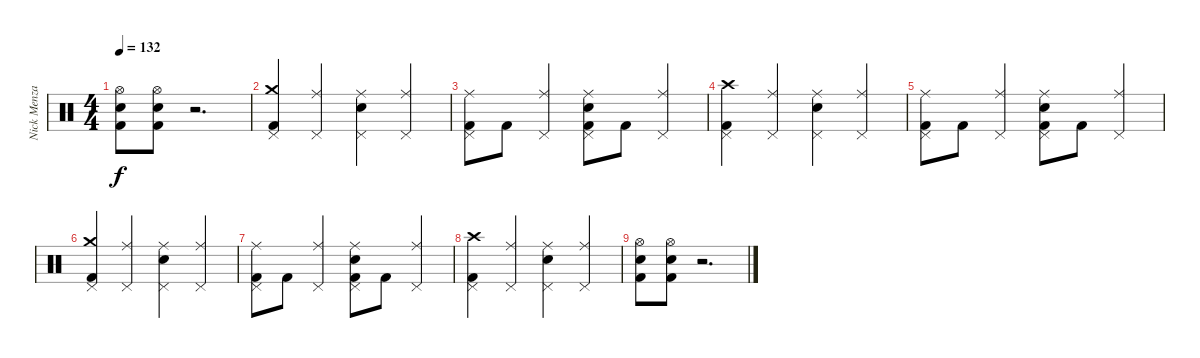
\track ("Nick Menza" "Nick Menza") {instrument percussion}
\staff {score}
\articulation defaults
\ts (4 4)
\tempo 132
\clef neutral
\ks c
("Hi-Hat (open)" "Snare (hit) 2" "Kick (hit) 2").8{dy f} ("Hi-Hat (open)" "Snare (hit) 2" "Kick (hit) 2").8 r.2{d volume 0} |
("Crash medium (hit)" "Pedal Hi-Hat (hit)" "Kick (hit) 2").4{volume 16} ("Ride (middle)" "Pedal Hi-Hat (hit)").4 ("Ride (middle)" "Pedal Hi-Hat (hit)" "Snare (hit) 2").4 ("Ride (middle)" "Pedal Hi-Hat (hit)").4 |
("Ride (middle)" "Pedal Hi-Hat (hit)" "Kick (hit) 2").8 "Kick (hit) 2".8 ("Ride (middle)" "Pedal Hi-Hat (hit)").4 ("Ride (middle)" "Pedal Hi-Hat (hit)" "Snare (hit) 2" "Kick (hit) 2").8 "Kick (hit) 2".8 ("Ride (middle)" "Pedal Hi-Hat (hit)").4 |
("Crash high (hit)" "Pedal Hi-Hat (hit)" "Kick (hit) 2").4 ("Ride (middle)" "Pedal Hi-Hat (hit)").4 ("Ride (middle)" "Pedal Hi-Hat (hit)" "Snare (hit) 2").4 ("Ride (middle)" "Pedal Hi-Hat (hit)").4 |
("Ride (middle)" "Pedal Hi-Hat (hit)" "Kick (hit) 2").8 "Kick (hit) 2".8 ("Ride (middle)" "Pedal Hi-Hat (hit)").4 ("Ride (middle)" "Pedal Hi-Hat (hit)" "Snare (hit) 2" "Kick (hit) 2").8 "Kick (hit) 2".8 ("Ride (middle)" "Pedal Hi-Hat (hit)").4 |
("Crash medium (hit)" "Pedal Hi-Hat (hit)" "Kick (hit) 2").4 ("Ride (middle)" "Pedal Hi-Hat (hit)").4 ("Ride (middle)" "Pedal Hi-Hat (hit)" "Snare (hit) 2").4 ("Ride (middle)" "Pedal Hi-Hat (hit)").4 |
("Ride (middle)" "Pedal Hi-Hat (hit)" "Kick (hit) 2").8 "Kick (hit) 2".8 ("Ride (middle)" "Pedal Hi-Hat (hit)").4 ("Ride (middle)" "Pedal Hi-Hat (hit)" "Snare (hit) 2" "Kick (hit) 2").8 "Kick (hit) 2".8 ("Ride (middle)" "Pedal Hi-Hat (hit)").4 |
("Crash high (hit)" "Pedal Hi-Hat (hit)" "Kick (hit) 2").4 ("Ride (middle)" "Pedal Hi-Hat (hit)").4 ("Ride (middle)" "Pedal Hi-Hat (hit)" "Snare (hit) 2").4 ("Ride (middle)" "Pedal Hi-Hat (hit)").4 |
("Hi-Hat (open)" "Snare (hit) 2" "Kick (hit) 2").8 ("Hi-Hat (open)" "Snare (hit) 2" "Kick (hit) 2").8 r.2{d volume 0}
